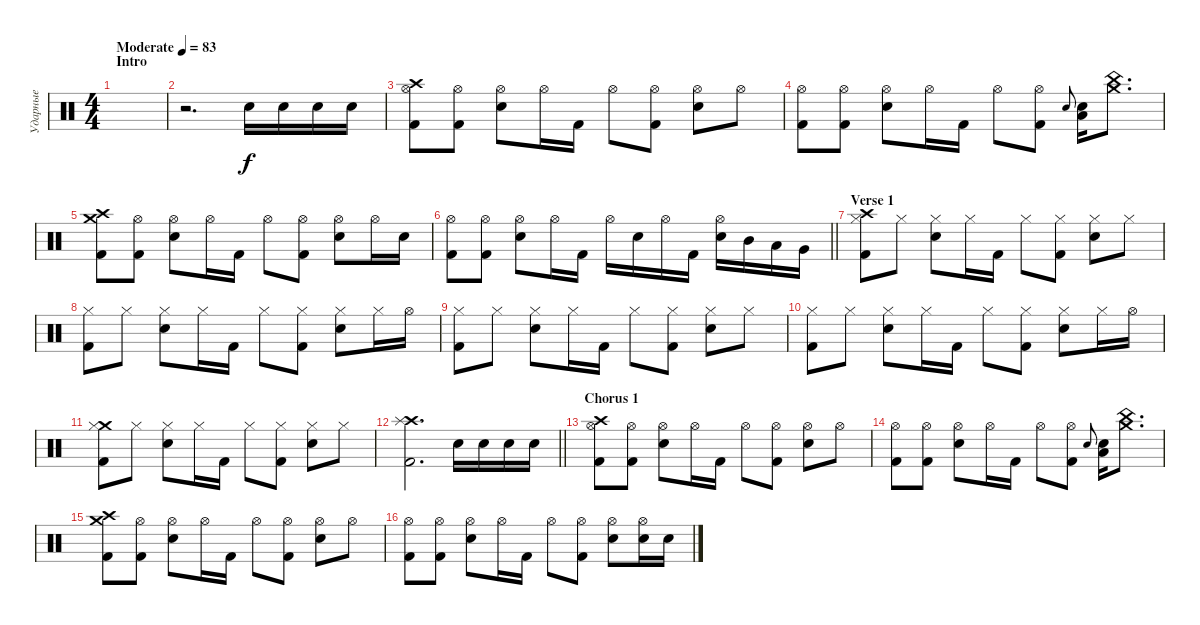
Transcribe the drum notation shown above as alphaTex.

\track ("Ударные" "Ударные") {instrument percussion}
\staff {score}
\articulation defaults
\ts (4 4)
\section ("" "Intro")
\tempo (83 "Moderate")
\clef neutral
\ks c
|
r.2{d} "Snare (hit) 2".16 "Snare (hit) 2".16 "Snare (hit) 2".16 "Snare (hit) 2".16 |
("Crash high (hit)" "Hi-Hat (open)" "Kick (hit) 2").8 ("Hi-Hat (open)" "Kick (hit) 2").8 ("Hi-Hat (open)" "Snare (hit) 2").8 "Hi-Hat (open)".16 "Kick (hit) 2".16 "Hi-Hat (open)".8 ("Hi-Hat (open)" "Kick (hit) 2").8 ("Hi-Hat (open)" "Snare (hit) 2").8 "Hi-Hat (open)".8 |
("Hi-Hat (open)" "Kick (hit) 2").8 ("Hi-Hat (open)" "Kick (hit) 2").8 ("Hi-Hat (open)" "Snare (hit) 2").8 "Hi-Hat (open)".16 "Kick (hit) 2".16 "Hi-Hat (open)".8 ("Hi-Hat (open)" "Kick (hit) 2").8 "Snare (hit) 2".8{gr onbeat} ("Snare (hit) 2" "Low Floor Tom (hit)").16 ("Crash medium (hit)" "China (hit)").8{d} |
("Crash medium (hit)" "Crash high (hit)" "Kick (hit) 2").8 ("Hi-Hat (open)" "Kick (hit) 2").8 ("Hi-Hat (open)" "Snare (hit) 2").8 "Hi-Hat (open)".16 "Kick (hit) 2".16 "Hi-Hat (open)".8 ("Hi-Hat (open)" "Kick (hit) 2").8 ("Hi-Hat (open)" "Snare (hit) 2").8 "Hi-Hat (open)".16 "Snare (hit) 2".16 |
\barLineRight lightlight
("Hi-Hat (open)" "Kick (hit) 2").8 ("Hi-Hat (open)" "Kick (hit) 2").8 ("Hi-Hat (open)" "Snare (hit) 2").8 "Hi-Hat (open)".16 "Kick (hit) 2".16 "Hi-Hat (open)".16 "Snare (hit) 2".16 "Hi-Hat (open)".16 "Kick (hit) 2".16 ("Hi-Hat (open)" "Snare (hit) 2").16 "Mid Tom (hit)".16 "Low Tom (hit)".16 "Very Low Tom (hit)".16 |
\section ("" "Verse 1")
("Crash high (hit)" "Hi-Hat (closed)" "Kick (hit) 2").8 "Hi-Hat (closed)".8 ("Hi-Hat (closed)" "Snare (hit) 2").8 "Hi-Hat (closed)".16 "Kick (hit) 2".16 "Hi-Hat (closed)".8 ("Hi-Hat (closed)" "Kick (hit) 2").8 ("Hi-Hat (closed)" "Snare (hit) 2").8 "Hi-Hat (closed)".8 |
("Hi-Hat (closed)" "Kick (hit) 2").8 "Hi-Hat (closed)".8 ("Hi-Hat (closed)" "Snare (hit) 2").8 "Hi-Hat (closed)".16 "Kick (hit) 2".16 "Hi-Hat (closed)".8 ("Hi-Hat (closed)" "Kick (hit) 2").8 ("Hi-Hat (closed)" "Snare (hit) 2").8 "Hi-Hat (closed)".16 "Hi-Hat (open)".16 |
("Hi-Hat (closed)" "Kick (hit) 2").8 "Hi-Hat (closed)".8 ("Hi-Hat (closed)" "Snare (hit) 2").8 "Hi-Hat (closed)".16 "Kick (hit) 2".16 "Hi-Hat (closed)".8 ("Hi-Hat (closed)" "Kick (hit) 2").8 ("Hi-Hat (closed)" "Snare (hit) 2").8 "Hi-Hat (closed)".8 |
("Hi-Hat (closed)" "Kick (hit) 2").8 "Hi-Hat (closed)".8 ("Hi-Hat (closed)" "Snare (hit) 2").8 "Hi-Hat (closed)".16 "Kick (hit) 2".16 "Hi-Hat (closed)".8 ("Hi-Hat (closed)" "Kick (hit) 2").8 ("Hi-Hat (closed)" "Snare (hit) 2").8 "Hi-Hat (closed)".16 "Hi-Hat (open)".16 |
("Crash medium (hit)" "Hi-Hat (closed)" "Kick (hit) 2").8 "Hi-Hat (closed)".8 ("Hi-Hat (closed)" "Snare (hit) 2").8 "Hi-Hat (closed)".16 "Kick (hit) 2".16 "Hi-Hat (closed)".8 ("Hi-Hat (closed)" "Kick (hit) 2").8 ("Hi-Hat (closed)" "Snare (hit) 2").8 "Hi-Hat (closed)".8 |
\barLineRight lightlight
("Crash high (hit)" "Splash (hit)" "Kick (hit) 2").2{d} "Snare (hit) 2".16 "Snare (hit) 2".16 "Snare (hit) 2".16 "Snare (hit) 2".16 |
\section ("" "Chorus 1")
("Crash high (hit)" "Hi-Hat (open)" "Kick (hit) 2").8 ("Hi-Hat (open)" "Kick (hit) 2").8 ("Hi-Hat (open)" "Snare (hit) 2").8 "Hi-Hat (open)".16 "Kick (hit) 2".16 "Hi-Hat (open)".8 ("Hi-Hat (open)" "Kick (hit) 2").8 ("Hi-Hat (open)" "Snare (hit) 2").8 "Hi-Hat (open)".8 |
("Hi-Hat (open)" "Kick (hit) 2").8 ("Hi-Hat (open)" "Kick (hit) 2").8 ("Hi-Hat (open)" "Snare (hit) 2").8 "Hi-Hat (open)".16 "Kick (hit) 2".16 "Hi-Hat (open)".8 ("Hi-Hat (open)" "Kick (hit) 2").8 "Snare (hit) 2".8{gr onbeat} ("Snare (hit) 2" "Low Floor Tom (hit)").16 ("Crash medium (hit)" "China (hit)").8{d} |
("Crash high (hit)" "Crash medium (hit)" "Kick (hit) 2").8 ("Hi-Hat (open)" "Kick (hit) 2").8 ("Hi-Hat (open)" "Snare (hit) 2").8 "Hi-Hat (open)".16 "Kick (hit) 2".16 "Hi-Hat (open)".8 ("Hi-Hat (open)" "Kick (hit) 2").8 ("Hi-Hat (open)" "Snare (hit) 2").8 "Hi-Hat (open)".8 |
("Hi-Hat (open)" "Kick (hit) 2").8 ("Hi-Hat (open)" "Kick (hit) 2").8 ("Hi-Hat (open)" "Snare (hit) 2").8 "Hi-Hat (open)".16 "Kick (hit) 2".16 "Hi-Hat (open)".8 ("Hi-Hat (open)" "Kick (hit) 2").8 ("Hi-Hat (open)" "Snare (hit) 2").8 ("Hi-Hat (open)" "Snare (hit) 2").16 "Snare (hit) 2".16
